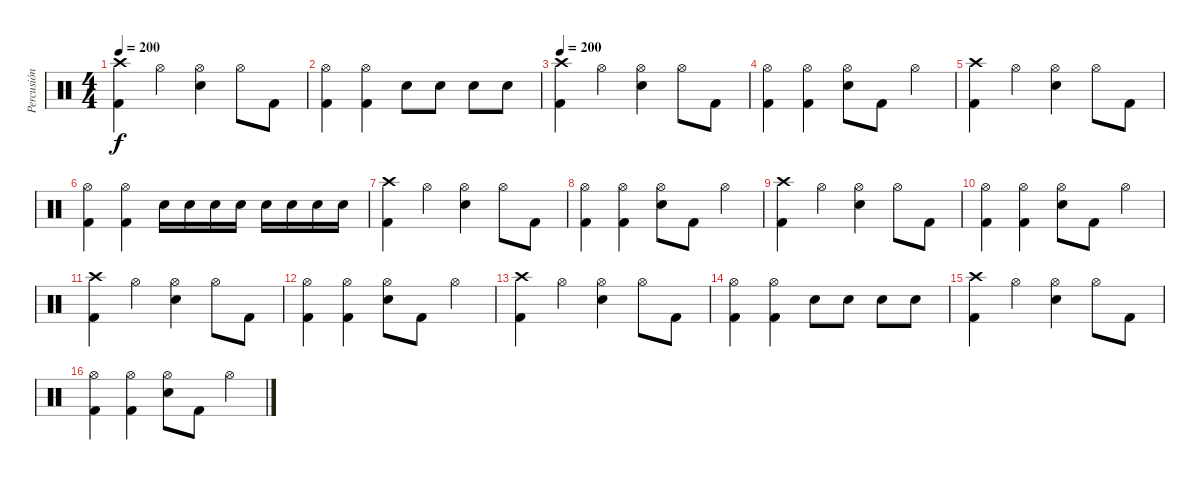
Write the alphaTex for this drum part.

\track ("Percusión" "Percusión") {instrument percussion}
\staff {score}
\articulation defaults
\ts (4 4)
\tempo 200
\clef neutral
\ks c
("Kick (hit) 2" "Crash high (hit)").4{dy f} "Hi-Hat (open)".4 ("Snare (hit) 2" "Hi-Hat (open)").4 "Hi-Hat (open)".8 "Kick (hit) 2".8 |
("Kick (hit) 2" "Hi-Hat (open)").4 ("Kick (hit) 2" "Hi-Hat (open)").4 "Snare (hit) 2".8 "Snare (hit) 2".8 "Snare (hit) 2".8 "Snare (hit) 2".8 |
\tempo 200
("Kick (hit) 2" "Crash high (hit)").4 "Hi-Hat (open)".4 ("Snare (hit) 2" "Hi-Hat (open)").4 "Hi-Hat (open)".8 "Kick (hit) 2".8 |
("Kick (hit) 2" "Hi-Hat (open)").4 ("Kick (hit) 2" "Hi-Hat (open)").4 ("Snare (hit) 2" "Hi-Hat (open)").8 "Kick (hit) 2".8 "Hi-Hat (open)".4 |
("Kick (hit) 2" "Crash high (hit)").4 "Hi-Hat (open)".4 ("Snare (hit) 2" "Hi-Hat (open)").4 "Hi-Hat (open)".8 "Kick (hit) 2".8 |
("Kick (hit) 2" "Hi-Hat (open)").4 ("Kick (hit) 2" "Hi-Hat (open)").4 "Snare (hit) 2".16 "Snare (hit) 2".16 "Snare (hit) 2".16 "Snare (hit) 2".16 "Snare (hit) 2".16 "Snare (hit) 2".16 "Snare (hit) 2".16 "Snare (hit) 2".16 |
("Kick (hit) 2" "Crash high (hit)").4 "Hi-Hat (open)".4 ("Snare (hit) 2" "Hi-Hat (open)").4 "Hi-Hat (open)".8 "Kick (hit) 2".8 |
("Kick (hit) 2" "Hi-Hat (open)").4 ("Kick (hit) 2" "Hi-Hat (open)").4 ("Snare (hit) 2" "Hi-Hat (open)").8 "Kick (hit) 2".8 "Hi-Hat (open)".4 |
("Kick (hit) 2" "Crash high (hit)").4 "Hi-Hat (open)".4 ("Snare (hit) 2" "Hi-Hat (open)").4 "Hi-Hat (open)".8 "Kick (hit) 2".8 |
("Kick (hit) 2" "Hi-Hat (open)").4 ("Kick (hit) 2" "Hi-Hat (open)").4 ("Snare (hit) 2" "Hi-Hat (open)").8 "Kick (hit) 2".8 "Hi-Hat (open)".4 |
("Kick (hit) 2" "Crash high (hit)").4 "Hi-Hat (open)".4 ("Snare (hit) 2" "Hi-Hat (open)").4 "Hi-Hat (open)".8 "Kick (hit) 2".8 |
("Kick (hit) 2" "Hi-Hat (open)").4 ("Kick (hit) 2" "Hi-Hat (open)").4 ("Snare (hit) 2" "Hi-Hat (open)").8 "Kick (hit) 2".8 "Hi-Hat (open)".4 |
("Kick (hit) 2" "Crash high (hit)").4 "Hi-Hat (open)".4 ("Snare (hit) 2" "Hi-Hat (open)").4 "Hi-Hat (open)".8 "Kick (hit) 2".8 |
("Kick (hit) 2" "Hi-Hat (open)").4 ("Kick (hit) 2" "Hi-Hat (open)").4 "Snare (hit) 2".8 "Snare (hit) 2".8 "Snare (hit) 2".8 "Snare (hit) 2".8 |
("Kick (hit) 2" "Crash high (hit)").4 "Hi-Hat (open)".4 ("Snare (hit) 2" "Hi-Hat (open)").4 "Hi-Hat (open)".8 "Kick (hit) 2".8 |
("Kick (hit) 2" "Hi-Hat (open)").4 ("Kick (hit) 2" "Hi-Hat (open)").4 ("Snare (hit) 2" "Hi-Hat (open)").8 "Kick (hit) 2".8 "Hi-Hat (open)".4
